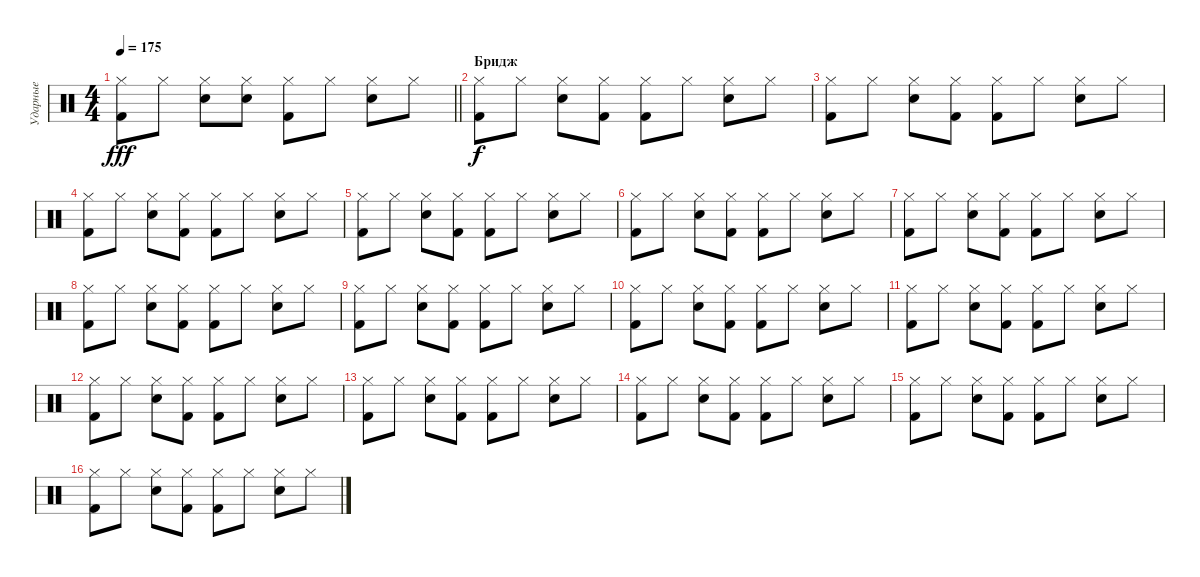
\track ("Ударные" "Ударные") {instrument percussion}
\staff {score}
\articulation defaults
\ts (4 4)
\tempo 175
\clef neutral
\barLineRight lightlight
\ks c
("Hi-Hat (closed)" "Kick (hit) 2").8{dy fff} "Hi-Hat (closed)".8 ("Hi-Hat (closed)" "Snare (hit) 2").8 ("Hi-Hat (closed)" "Snare (hit) 2").8 ("Hi-Hat (closed)" "Kick (hit) 2").8 "Hi-Hat (closed)".8 ("Hi-Hat (closed)" "Snare (hit) 2").8 "Hi-Hat (closed)".8 |
\section ("" "Бридж")
("Hi-Hat (closed)" "Kick (hit) 2").8{dy f} "Hi-Hat (closed)".8 ("Hi-Hat (closed)" "Snare (hit) 2").8 ("Hi-Hat (closed)" "Kick (hit) 2").8 ("Hi-Hat (closed)" "Kick (hit) 2").8 "Hi-Hat (closed)".8 ("Hi-Hat (closed)" "Snare (hit) 2").8 "Hi-Hat (closed)".8 |
("Hi-Hat (closed)" "Kick (hit) 2").8 "Hi-Hat (closed)".8 ("Hi-Hat (closed)" "Snare (hit) 2").8 ("Hi-Hat (closed)" "Kick (hit) 2").8 ("Hi-Hat (closed)" "Kick (hit) 2").8 "Hi-Hat (closed)".8 ("Hi-Hat (closed)" "Snare (hit) 2").8 "Hi-Hat (closed)".8 |
("Hi-Hat (closed)" "Kick (hit) 2").8 "Hi-Hat (closed)".8 ("Hi-Hat (closed)" "Snare (hit) 2").8 ("Hi-Hat (closed)" "Kick (hit) 2").8 ("Hi-Hat (closed)" "Kick (hit) 2").8 "Hi-Hat (closed)".8 ("Hi-Hat (closed)" "Snare (hit) 2").8 "Hi-Hat (closed)".8 |
("Hi-Hat (closed)" "Kick (hit) 2").8 "Hi-Hat (closed)".8 ("Hi-Hat (closed)" "Snare (hit) 2").8 ("Hi-Hat (closed)" "Kick (hit) 2").8 ("Hi-Hat (closed)" "Kick (hit) 2").8 "Hi-Hat (closed)".8 ("Hi-Hat (closed)" "Snare (hit) 2").8 "Hi-Hat (closed)".8 |
("Hi-Hat (closed)" "Kick (hit) 2").8 "Hi-Hat (closed)".8 ("Hi-Hat (closed)" "Snare (hit) 2").8 ("Hi-Hat (closed)" "Kick (hit) 2").8 ("Hi-Hat (closed)" "Kick (hit) 2").8 "Hi-Hat (closed)".8 ("Hi-Hat (closed)" "Snare (hit) 2").8 "Hi-Hat (closed)".8 |
("Hi-Hat (closed)" "Kick (hit) 2").8 "Hi-Hat (closed)".8 ("Hi-Hat (closed)" "Snare (hit) 2").8 ("Hi-Hat (closed)" "Kick (hit) 2").8 ("Hi-Hat (closed)" "Kick (hit) 2").8 "Hi-Hat (closed)".8 ("Hi-Hat (closed)" "Snare (hit) 2").8 "Hi-Hat (closed)".8 |
("Hi-Hat (closed)" "Kick (hit) 2").8 "Hi-Hat (closed)".8 ("Hi-Hat (closed)" "Snare (hit) 2").8 ("Hi-Hat (closed)" "Kick (hit) 2").8 ("Hi-Hat (closed)" "Kick (hit) 2").8 "Hi-Hat (closed)".8 ("Hi-Hat (closed)" "Snare (hit) 2").8 "Hi-Hat (closed)".8 |
("Hi-Hat (closed)" "Kick (hit) 2").8 "Hi-Hat (closed)".8 ("Hi-Hat (closed)" "Snare (hit) 2").8 ("Hi-Hat (closed)" "Kick (hit) 2").8 ("Hi-Hat (closed)" "Kick (hit) 2").8 "Hi-Hat (closed)".8 ("Hi-Hat (closed)" "Snare (hit) 2").8 "Hi-Hat (closed)".8 |
("Hi-Hat (closed)" "Kick (hit) 2").8 "Hi-Hat (closed)".8 ("Hi-Hat (closed)" "Snare (hit) 2").8 ("Hi-Hat (closed)" "Kick (hit) 2").8 ("Hi-Hat (closed)" "Kick (hit) 2").8 "Hi-Hat (closed)".8 ("Hi-Hat (closed)" "Snare (hit) 2").8 "Hi-Hat (closed)".8 |
("Hi-Hat (closed)" "Kick (hit) 2").8 "Hi-Hat (closed)".8 ("Hi-Hat (closed)" "Snare (hit) 2").8 ("Hi-Hat (closed)" "Kick (hit) 2").8 ("Hi-Hat (closed)" "Kick (hit) 2").8 "Hi-Hat (closed)".8 ("Hi-Hat (closed)" "Snare (hit) 2").8 "Hi-Hat (closed)".8 |
("Hi-Hat (closed)" "Kick (hit) 2").8 "Hi-Hat (closed)".8 ("Hi-Hat (closed)" "Snare (hit) 2").8 ("Hi-Hat (closed)" "Kick (hit) 2").8 ("Hi-Hat (closed)" "Kick (hit) 2").8 "Hi-Hat (closed)".8 ("Hi-Hat (closed)" "Snare (hit) 2").8 "Hi-Hat (closed)".8 |
("Hi-Hat (closed)" "Kick (hit) 2").8 "Hi-Hat (closed)".8 ("Hi-Hat (closed)" "Snare (hit) 2").8 ("Hi-Hat (closed)" "Kick (hit) 2").8 ("Hi-Hat (closed)" "Kick (hit) 2").8 "Hi-Hat (closed)".8 ("Hi-Hat (closed)" "Snare (hit) 2").8 "Hi-Hat (closed)".8 |
("Hi-Hat (closed)" "Kick (hit) 2").8 "Hi-Hat (closed)".8 ("Hi-Hat (closed)" "Snare (hit) 2").8 ("Hi-Hat (closed)" "Kick (hit) 2").8 ("Hi-Hat (closed)" "Kick (hit) 2").8 "Hi-Hat (closed)".8 ("Hi-Hat (closed)" "Snare (hit) 2").8 "Hi-Hat (closed)".8 |
("Hi-Hat (closed)" "Kick (hit) 2").8 "Hi-Hat (closed)".8 ("Hi-Hat (closed)" "Snare (hit) 2").8 ("Hi-Hat (closed)" "Kick (hit) 2").8 ("Hi-Hat (closed)" "Kick (hit) 2").8 "Hi-Hat (closed)".8 ("Hi-Hat (closed)" "Snare (hit) 2").8 "Hi-Hat (closed)".8 |
("Hi-Hat (closed)" "Kick (hit) 2").8 "Hi-Hat (closed)".8 ("Hi-Hat (closed)" "Snare (hit) 2").8 ("Hi-Hat (closed)" "Kick (hit) 2").8 ("Hi-Hat (closed)" "Kick (hit) 2").8 "Hi-Hat (closed)".8 ("Hi-Hat (closed)" "Snare (hit) 2").8 "Hi-Hat (closed)".8
